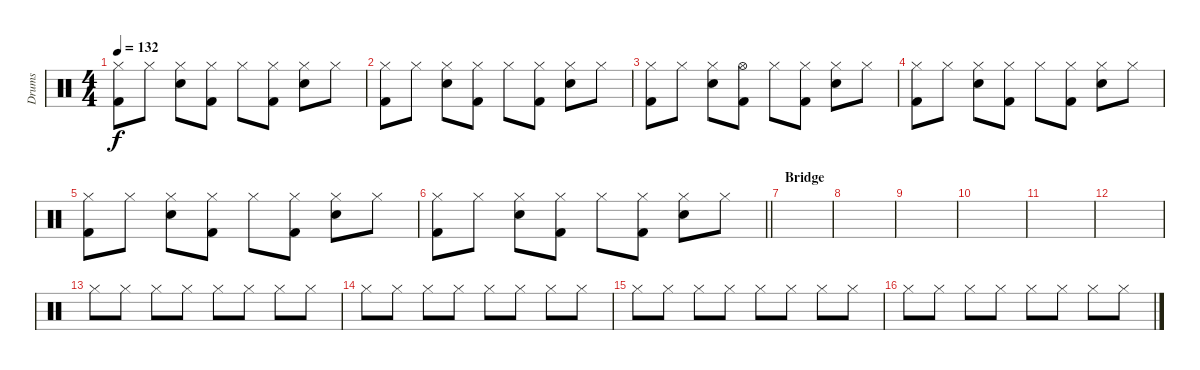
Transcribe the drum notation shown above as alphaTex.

\track ("Drums" "Drums") {instrument percussion}
\staff {score}
\articulation defaults
\ts (4 4)
\tempo 132
\clef neutral
\ks c
("Hi-Hat (closed)" "Kick (hit) 2").8{dy f} "Hi-Hat (closed)".8 ("Hi-Hat (closed)" "Electric Snare (hit)").8 ("Hi-Hat (closed)" "Kick (hit) 2").8 "Hi-Hat (closed)".8 ("Hi-Hat (closed)" "Kick (hit) 2").8 ("Hi-Hat (closed)" "Electric Snare (hit)").8 "Hi-Hat (closed)".8 |
("Hi-Hat (closed)" "Kick (hit) 2").8 "Hi-Hat (closed)".8 ("Hi-Hat (closed)" "Electric Snare (hit)").8 ("Hi-Hat (closed)" "Kick (hit) 2").8 "Hi-Hat (closed)".8 ("Hi-Hat (closed)" "Kick (hit) 2").8 ("Hi-Hat (closed)" "Electric Snare (hit)").8 "Hi-Hat (closed)".8 |
("Hi-Hat (closed)" "Kick (hit) 2").8 "Hi-Hat (closed)".8 ("Hi-Hat (closed)" "Electric Snare (hit)").8 ("Hi-Hat (open)" "Kick (hit) 2").8 "Hi-Hat (closed)".8 ("Hi-Hat (closed)" "Kick (hit) 2").8 ("Hi-Hat (closed)" "Electric Snare (hit)").8 "Hi-Hat (closed)".8 |
("Hi-Hat (closed)" "Kick (hit) 2").8 "Hi-Hat (closed)".8 ("Hi-Hat (closed)" "Electric Snare (hit)").8 ("Hi-Hat (closed)" "Kick (hit) 2").8 "Hi-Hat (closed)".8 ("Hi-Hat (closed)" "Kick (hit) 2").8 ("Hi-Hat (closed)" "Electric Snare (hit)").8 "Hi-Hat (closed)".8 |
("Hi-Hat (closed)" "Kick (hit) 2").8 "Hi-Hat (closed)".8 ("Hi-Hat (closed)" "Electric Snare (hit)").8 ("Hi-Hat (closed)" "Kick (hit) 2").8 "Hi-Hat (closed)".8 ("Hi-Hat (closed)" "Kick (hit) 2").8 ("Hi-Hat (closed)" "Electric Snare (hit)").8 "Hi-Hat (closed)".8 |
\barLineRight lightlight
("Hi-Hat (closed)" "Kick (hit) 2").8 "Hi-Hat (closed)".8 ("Hi-Hat (closed)" "Electric Snare (hit)").8 ("Hi-Hat (closed)" "Kick (hit) 2").8 "Hi-Hat (closed)".8 ("Hi-Hat (closed)" "Kick (hit) 2").8 ("Hi-Hat (closed)" "Electric Snare (hit)").8 "Hi-Hat (closed)".8 |
\section ("" "Bridge")
|
|
|
|
|
|
"Hi-Hat (closed)".8{volume 8} "Hi-Hat (closed)".8 "Hi-Hat (closed)".8 "Hi-Hat (closed)".8 "Hi-Hat (closed)".8 "Hi-Hat (closed)".8 "Hi-Hat (closed)".8 "Hi-Hat (closed)".8 |
"Hi-Hat (closed)".8 "Hi-Hat (closed)".8 "Hi-Hat (closed)".8 "Hi-Hat (closed)".8 "Hi-Hat (closed)".8 "Hi-Hat (closed)".8 "Hi-Hat (closed)".8 "Hi-Hat (closed)".8 |
"Hi-Hat (closed)".8 "Hi-Hat (closed)".8 "Hi-Hat (closed)".8 "Hi-Hat (closed)".8 "Hi-Hat (closed)".8 "Hi-Hat (closed)".8 "Hi-Hat (closed)".8 "Hi-Hat (closed)".8 |
"Hi-Hat (closed)".8 "Hi-Hat (closed)".8 "Hi-Hat (closed)".8 "Hi-Hat (closed)".8 "Hi-Hat (closed)".8 "Hi-Hat (closed)".8 "Hi-Hat (closed)".8 "Hi-Hat (closed)".8
